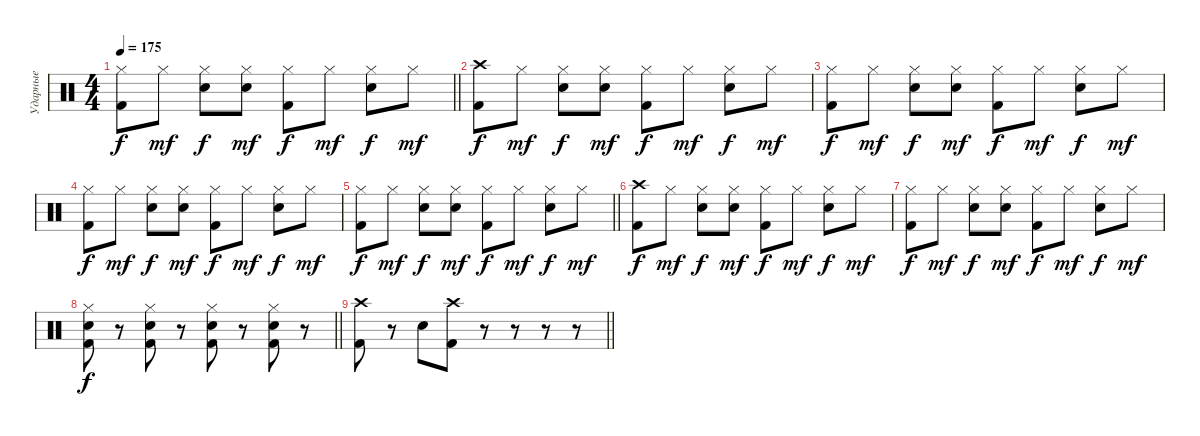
\track ("Ударные" "Ударные") {instrument percussion}
\staff {score}
\articulation defaults
\ts (4 4)
\tempo 175
\clef neutral
\barLineRight lightlight
\ks c
("Hi-Hat (closed)" "Kick (hit) 2").8{dy f} "Hi-Hat (closed)".8{dy mf} ("Hi-Hat (closed)" "Snare (hit) 2").8{dy f} ("Hi-Hat (closed)" "Snare (hit) 2").8{dy mf} ("Hi-Hat (closed)" "Kick (hit) 2").8{dy f} "Hi-Hat (closed)".8{dy mf} ("Hi-Hat (closed)" "Snare (hit) 2").8{dy f} "Hi-Hat (closed)".8{dy mf} |
\section ("" "")
("Crash high (hit)" "Kick (hit) 2").8{dy f} "Hi-Hat (closed)".8{dy mf} ("Hi-Hat (closed)" "Snare (hit) 2").8{dy f} ("Hi-Hat (closed)" "Snare (hit) 2").8{dy mf} ("Hi-Hat (closed)" "Kick (hit) 2").8{dy f} "Hi-Hat (closed)".8{dy mf} ("Hi-Hat (closed)" "Snare (hit) 2").8{dy f} "Hi-Hat (closed)".8{dy mf} |
("Hi-Hat (closed)" "Kick (hit) 2").8{dy f} "Hi-Hat (closed)".8{dy mf} ("Hi-Hat (closed)" "Snare (hit) 2").8{dy f} ("Hi-Hat (closed)" "Snare (hit) 2").8{dy mf} ("Hi-Hat (closed)" "Kick (hit) 2").8{dy f} "Hi-Hat (closed)".8{dy mf} ("Hi-Hat (closed)" "Snare (hit) 2").8{dy f} "Hi-Hat (closed)".8{dy mf} |
("Hi-Hat (closed)" "Kick (hit) 2").8{dy f} "Hi-Hat (closed)".8{dy mf} ("Hi-Hat (closed)" "Snare (hit) 2").8{dy f} ("Hi-Hat (closed)" "Snare (hit) 2").8{dy mf} ("Hi-Hat (closed)" "Kick (hit) 2").8{dy f} "Hi-Hat (closed)".8{dy mf} ("Hi-Hat (closed)" "Snare (hit) 2").8{dy f} "Hi-Hat (closed)".8{dy mf} |
\barLineRight lightlight
("Hi-Hat (closed)" "Kick (hit) 2").8{dy f} "Hi-Hat (closed)".8{dy mf} ("Hi-Hat (closed)" "Snare (hit) 2").8{dy f} ("Hi-Hat (closed)" "Snare (hit) 2").8{dy mf} ("Hi-Hat (closed)" "Kick (hit) 2").8{dy f} "Hi-Hat (closed)".8{dy mf} ("Hi-Hat (closed)" "Snare (hit) 2").8{dy f} "Hi-Hat (closed)".8{dy mf} |
\section ("" "")
("Crash high (hit)" "Kick (hit) 2").8{dy f} "Hi-Hat (closed)".8{dy mf} ("Hi-Hat (closed)" "Snare (hit) 2").8{dy f} ("Hi-Hat (closed)" "Snare (hit) 2").8{dy mf} ("Hi-Hat (closed)" "Kick (hit) 2").8{dy f} "Hi-Hat (closed)".8{dy mf} ("Hi-Hat (closed)" "Snare (hit) 2").8{dy f} "Hi-Hat (closed)".8{dy mf} |
("Hi-Hat (closed)" "Kick (hit) 2").8{dy f} "Hi-Hat (closed)".8{dy mf} ("Hi-Hat (closed)" "Snare (hit) 2").8{dy f} ("Hi-Hat (closed)" "Snare (hit) 2").8{dy mf} ("Hi-Hat (closed)" "Kick (hit) 2").8{dy f} "Hi-Hat (closed)".8{dy mf} ("Hi-Hat (closed)" "Snare (hit) 2").8{dy f} "Hi-Hat (closed)".8{dy mf} |
\barLineRight lightlight
("Hi-Hat (closed)" "Snare (hit) 2" "Kick (hit) 2").8{dy f} r.8 ("Hi-Hat (closed)" "Kick (hit) 2" "Snare (hit) 2").8 r.8 ("Hi-Hat (closed)" "Snare (hit) 2" "Kick (hit) 2").8 r.8 ("Hi-Hat (closed)" "Kick (hit) 2" "Snare (hit) 2").8 r.8 |
\barLineRight lightlight
("Crash high (hit)" "Kick (hit) 2").8 r.8 "Snare (hit) 2".8 ("Crash high (hit)" "Kick (hit) 2").8 r.8 r.8 r.8 r.8
